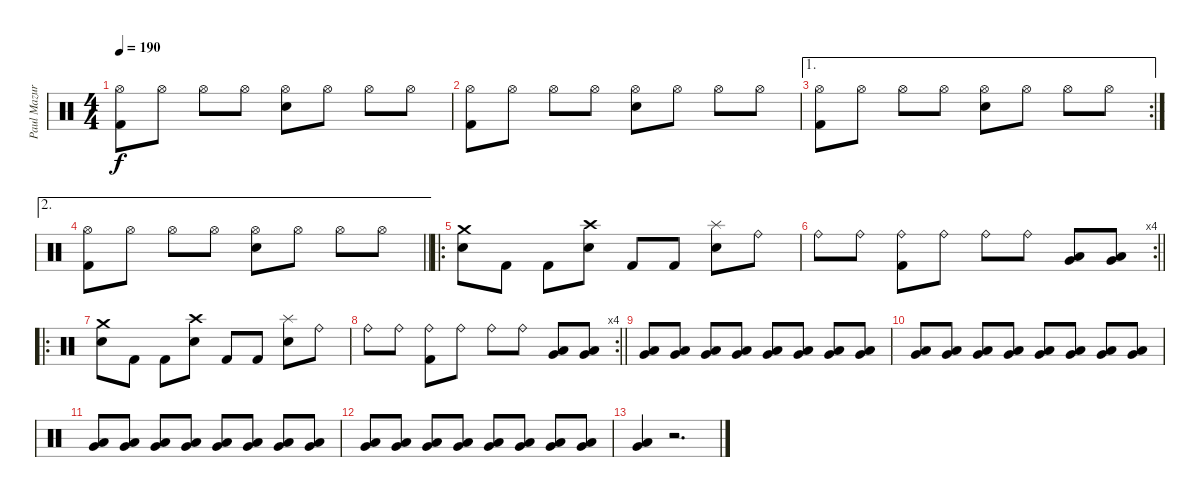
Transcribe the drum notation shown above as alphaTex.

\track ("Paul Mazurkiewicz" "Paul Mazur") {instrument percussion}
\staff {score}
\articulation defaults
\ts (4 4)
\tempo 190
\clef neutral
\ks c
("Hi-Hat (open)" "Kick (hit) 2").8{dy f} "Hi-Hat (open)".8 "Hi-Hat (open)".8 "Hi-Hat (open)".8 ("Hi-Hat (open)" "Electric Snare (hit)").8 "Hi-Hat (open)".8 "Hi-Hat (open)".8 "Hi-Hat (open)".8 |
("Hi-Hat (open)" "Kick (hit) 2").8 "Hi-Hat (open)".8 "Hi-Hat (open)".8 "Hi-Hat (open)".8 ("Hi-Hat (open)" "Electric Snare (hit)").8 "Hi-Hat (open)".8 "Hi-Hat (open)".8 "Hi-Hat (open)".8 |
\ae 1
\rc 2
("Hi-Hat (open)" "Kick (hit) 2").8 "Hi-Hat (open)".8 "Hi-Hat (open)".8 "Hi-Hat (open)".8 ("Hi-Hat (open)" "Electric Snare (hit)").8 "Hi-Hat (open)".8 "Hi-Hat (open)".8 "Hi-Hat (open)".8 |
\ae 2
\barLineRight lightlight
("Hi-Hat (open)" "Kick (hit) 2").8 "Hi-Hat (open)".8 "Hi-Hat (open)".8 "Hi-Hat (open)".8 ("Hi-Hat (open)" "Electric Snare (hit)").8 "Hi-Hat (open)".8 "Hi-Hat (open)".8 "Hi-Hat (open)".8 |
\ro
("Electric Snare (hit)" "Crash medium (hit)").8 "Kick (hit) 2".8 "Kick (hit) 2".8 ("Electric Snare (hit)" "Crash high (hit)").8 "Kick (hit) 2".8 "Kick (hit) 2".8 ("Electric Snare (hit)" "Splash (hit)").8 "Ride (bell)".8 |
\rc 4
\barLineRight lightlight "Ride (bell)".8 "Ride (bell)".8
("Ride (bell)" "Kick (hit) 2").8 "Ride (bell)".8 "Ride (bell)".8 "Ride (bell)".8 ("Low Tom (hit)" "Very Low Tom (hit)").8 ("Low Tom (hit)" "Very Low Tom (hit)").8 |
\ro
("Electric Snare (hit)" "Crash medium (hit)").8 "Kick (hit) 2".8 "Kick (hit) 2".8 ("Electric Snare (hit)" "Crash high (hit)").8 "Kick (hit) 2".8 "Kick (hit) 2".8 ("Electric Snare (hit)" "Splash (hit)").8 "Ride (bell)".8 |
\rc 4
\barLineRight lightlight "Ride (bell)".8 "Ride (bell)".8
("Ride (bell)" "Kick (hit) 2").8 "Ride (bell)".8 "Ride (bell)".8 "Ride (bell)".8 ("Low Tom (hit)" "Very Low Tom (hit)").8 ("Low Tom (hit)" "Very Low Tom (hit)").8 |
("Very Low Tom (hit)" "Low Floor Tom (hit)").8 ("Very Low Tom (hit)" "Low Floor Tom (hit)").8 ("Very Low Tom (hit)" "Low Floor Tom (hit)").8 ("Very Low Tom (hit)" "Low Floor Tom (hit)").8 ("Very Low Tom (hit)" "Low Floor Tom (hit)").8 ("Very Low Tom (hit)" "Low Floor Tom (hit)").8 ("Very Low Tom (hit)" "Low Floor Tom (hit)").8 ("Very Low Tom (hit)" "Low Floor Tom (hit)").8 |
("Very Low Tom (hit)" "Low Floor Tom (hit)").8 ("Very Low Tom (hit)" "Low Floor Tom (hit)").8 ("Very Low Tom (hit)" "Low Floor Tom (hit)").8 ("Very Low Tom (hit)" "Low Floor Tom (hit)").8 ("Very Low Tom (hit)" "Low Floor Tom (hit)").8 ("Very Low Tom (hit)" "Low Floor Tom (hit)").8 ("Very Low Tom (hit)" "Low Floor Tom (hit)").8 ("Very Low Tom (hit)" "Low Floor Tom (hit)").8 |
("Very Low Tom (hit)" "Low Floor Tom (hit)").8 ("Very Low Tom (hit)" "Low Floor Tom (hit)").8 ("Very Low Tom (hit)" "Low Floor Tom (hit)").8 ("Very Low Tom (hit)" "Low Floor Tom (hit)").8 ("Very Low Tom (hit)" "Low Floor Tom (hit)").8 ("Very Low Tom (hit)" "Low Floor Tom (hit)").8 ("Very Low Tom (hit)" "Low Floor Tom (hit)").8 ("Very Low Tom (hit)" "Low Floor Tom (hit)").8 |
("Very Low Tom (hit)" "Low Floor Tom (hit)").8 ("Very Low Tom (hit)" "Low Floor Tom (hit)").8 ("Very Low Tom (hit)" "Low Floor Tom (hit)").8 ("Very Low Tom (hit)" "Low Floor Tom (hit)").8 ("Very Low Tom (hit)" "Low Floor Tom (hit)").8 ("Very Low Tom (hit)" "Low Floor Tom (hit)").8 ("Very Low Tom (hit)" "Low Floor Tom (hit)").8 ("Very Low Tom (hit)" "Low Floor Tom (hit)").8 |
("Very Low Tom (hit)" "Low Floor Tom (hit)").4 r.2{d}
